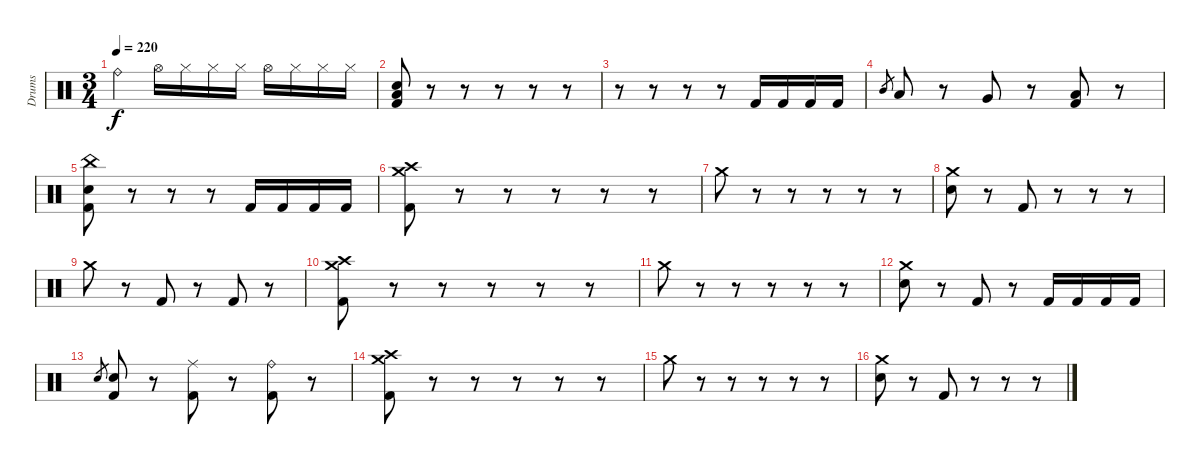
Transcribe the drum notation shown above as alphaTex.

\track ("Drums" "Drums") {instrument percussion}
\staff {score}
\articulation defaults
\ts (3 4)
\tempo 220
\clef neutral
\ks c "Ride (bell)".4{dy f} "Hi-Hat (open)".16 "Hi-Hat (closed)".16 "Hi-Hat (closed)".16 "Hi-Hat (closed)".16 "Hi-Hat (open)".16 "Hi-Hat (closed)".16 "Hi-Hat (closed)".16 "Hi-Hat (closed)".16
|
("Low Floor Tom (hit)" "Electric Snare (hit)" "Kick (hit) 2").8 r.8 r.8 r.8 r.8 r.8 |
r.8 r.8 r.8 r.8 "Kick (hit) 2".16 "Kick (hit) 2".16 "Kick (hit) 2".16 "Kick (hit) 2".16 |
"Mid Tom (hit)".8{gr} "Low Tom (hit)".8 r.8 "Very Low Tom (hit)".8 r.8 ("Low Floor Tom (hit)" "Kick (hit) 2").8 r.8 |
("China (hit)" "Electric Snare (hit)" "Kick (hit) 2").8 r.8 r.8 r.8 "Kick (hit) 2".16 "Kick (hit) 2".16 "Kick (hit) 2".16 "Kick (hit) 2".16 |
("Crash medium (hit)" "Crash high (hit)" "Kick (hit) 2").8 r.8 r.8 r.8 r.8 r.8 |
"Crash medium (hit)".8 r.8 r.8 r.8 r.8 r.8 |
("Crash medium (hit)" "Electric Snare (hit)").8 r.8 "Kick (hit) 2".8 r.8 r.8 r.8 |
"Crash medium (hit)".8 r.8 "Kick (hit) 2".8 r.8 "Kick (hit) 2".8 r.8 |
("Crash medium (hit)" "Crash high (hit)" "Kick (hit) 2").8 r.8 r.8 r.8 r.8 r.8 |
"Crash medium (hit)".8 r.8 r.8 r.8 r.8 r.8 |
("Crash medium (hit)" "Electric Snare (hit)").8 r.8 "Kick (hit) 2".8 r.8 "Kick (hit) 2".16 "Kick (hit) 2".16 "Kick (hit) 2".16 "Kick (hit) 2".16 |
"Electric Snare (hit)".8{gr} ("Electric Snare (hit)" "Kick (hit) 2").8 r.8 ("Ride (middle)" "Kick (hit) 2").8 r.8 ("Ride (bell)" "Kick (hit) 2").8 r.8 |
("Crash medium (hit)" "Crash high (hit)" "Kick (hit) 2").8 r.8 r.8 r.8 r.8 r.8 |
"Crash medium (hit)".8 r.8 r.8 r.8 r.8 r.8 |
("Crash medium (hit)" "Electric Snare (hit)").8 r.8 "Kick (hit) 2".8 r.8 r.8 r.8
